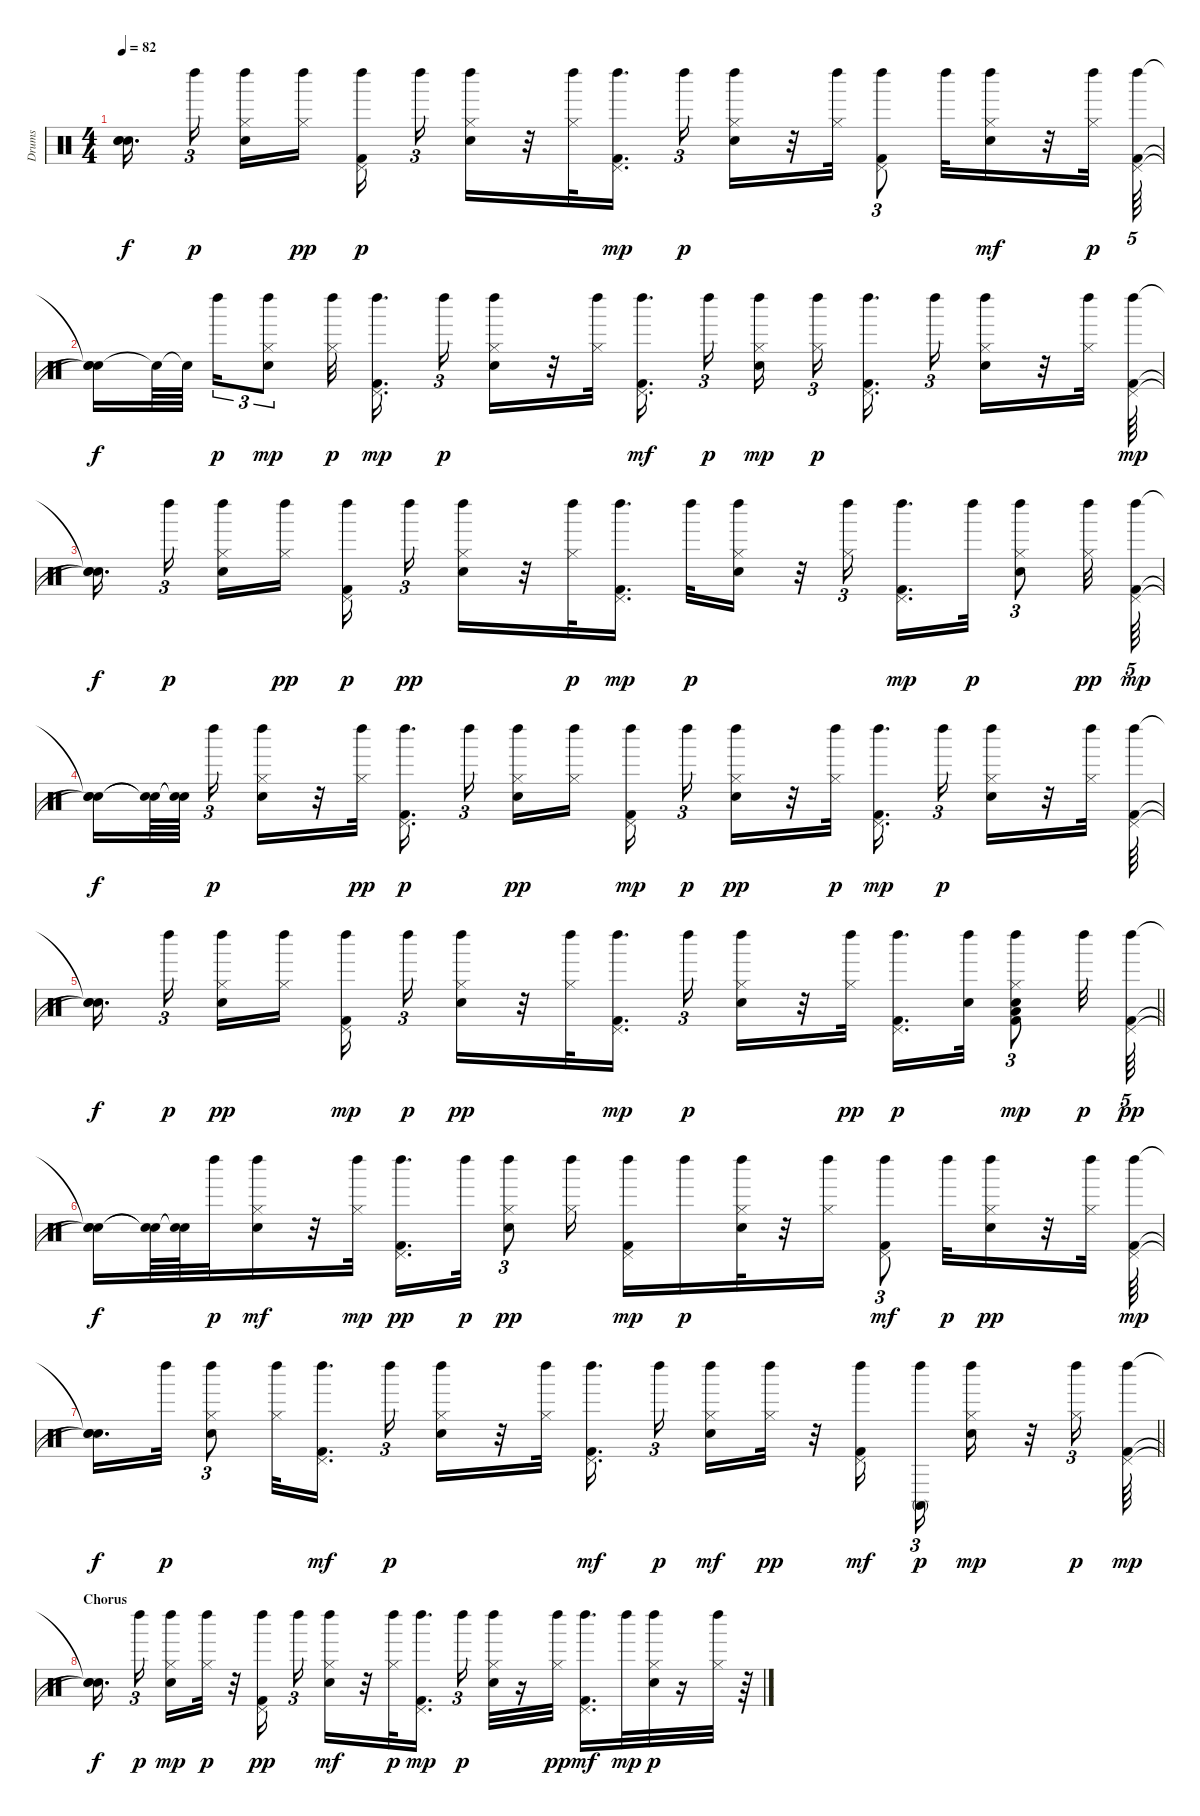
\track ("Drums" "Drums") {instrument percussion}
\staff {score}
\articulation defaults
\ts (4 4)
\tempo 82
\clef neutral
\ks c
("Snare (hit)"{t} "Snare (hit)"{t} "Snare (hit)"{t}).16{d dy f beam splitsecondary} "Left Maraca (hit)".16{tu (3 2) dy p beam splitsecondary} ("Hi-Hat (closed)" "Left Maraca (hit)" "Hand Clap (hit)").16 ("Left Maraca (hit)" "Hi-Hat (closed)").16{dy pp} ("Pedal Hi-Hat (hit)" "Left Maraca (hit)" "Kick (hit) 2").16{dy p beam splitsecondary} "Left Maraca (hit)".16{tu (3 2)} ("Hi-Hat (closed)" "Left Maraca (hit)" "Hand Clap (hit)").16 r.32 ("Hi-Hat (closed)" "Left Maraca (hit)").32 ("Pedal Hi-Hat (hit)" "Left Maraca (hit)" "Kick (hit) 2").16{d dy mp} "Left Maraca (hit)".16{tu (3 2) dy p} ("Hi-Hat (closed)" "Left Maraca (hit)" "Hand Clap (hit)").16 r.32 ("Hi-Hat (closed)" "Left Maraca (hit)").32 ("Pedal Hi-Hat (hit)" "Left Maraca (hit)" "Kick (hit) 2").8{tu (3 2)} "Left Maraca (hit)".32 ("Hi-Hat (closed)" "Left Maraca (hit)" "Hand Clap (hit)").16{dy mf} r.32 ("Left Maraca (hit)" "Hi-Hat (closed)").32{dy p} ("Pedal Hi-Hat (hit)" "Left Maraca (hit)" "Kick (hit) 2").64{tu (5 4)} |
("Snare (hit)"{t} "Snare (hit)"{t} "Snare (hit)"{t}).16{dy f} "Snare (hit)"{t}.64 "Snare (hit)"{t}.64{beam splitsecondary} "Left Maraca (hit)".16{tu (3 2) dy p} ("Hi-Hat (closed)" "Hand Clap (hit)" "Left Maraca (hit)").8{tu (3 2) dy mp} ("Hi-Hat (closed)" "Left Maraca (hit)").32{dy p} ("Pedal Hi-Hat (hit)" "Left Maraca (hit)" "Kick (hit) 2").16{d dy mp beam splitsecondary} "Left Maraca (hit)".16{tu (3 2) dy p} ("Hi-Hat (closed)" "Left Maraca (hit)" "Hand Clap (hit)").16 r.32 ("Left Maraca (hit)" "Hi-Hat (closed)").32 ("Pedal Hi-Hat (hit)" "Left Maraca (hit)" "Kick (hit) 2").16{d dy mf beam splitsecondary} "Left Maraca (hit)".16{tu (3 2) dy p beam splitsecondary} ("Hi-Hat (closed)" "Hand Clap (hit)" "Left Maraca (hit)").16{dy mp} ("Hi-Hat (closed)" "Left Maraca (hit)").16{tu (3 2) dy p} ("Pedal Hi-Hat (hit)" "Kick (hit) 2" "Left Maraca (hit)").16{d beam splitsecondary} "Left Maraca (hit)".16{tu (3 2)} ("Hi-Hat (closed)" "Hand Clap (hit)" "Left Maraca (hit)").16 r.32 ("Left Maraca (hit)" "Hi-Hat (closed)").32 ("Pedal Hi-Hat (hit)" "Left Maraca (hit)" "Kick (hit) 2").64{dy mp} |
("Snare (hit)"{t} "Snare (hit)"{t} "Snare (hit)"{t}).16{d dy f beam splitsecondary} "Left Maraca (hit)".16{tu (3 2) dy p beam splitsecondary} ("Hi-Hat (closed)" "Hand Clap (hit)" "Left Maraca (hit)").16 ("Left Maraca (hit)" "Hi-Hat (closed)").16{dy pp} ("Pedal Hi-Hat (hit)" "Left Maraca (hit)" "Kick (hit) 2").16{dy p beam splitsecondary} "Left Maraca (hit)".16{tu (3 2) dy pp} ("Hi-Hat (closed)" "Hand Clap (hit)" "Left Maraca (hit)").16 r.32 ("Left Maraca (hit)" "Hi-Hat (closed)").32{dy p} ("Pedal Hi-Hat (hit)" "Left Maraca (hit)" "Kick (hit) 2").16{d dy mp} "Left Maraca (hit)".32{dy p} ("Hi-Hat (closed)" "Hand Clap (hit)" "Left Maraca (hit)").16 r.32 ("Hi-Hat (closed)" "Left Maraca (hit)").16{tu (3 2)} ("Pedal Hi-Hat (hit)" "Left Maraca (hit)" "Kick (hit) 2").16{d dy mp} "Left Maraca (hit)".32{dy p} ("Hi-Hat (closed)" "Left Maraca (hit)" "Hand Clap (hit)").8{tu (3 2)} ("Hi-Hat (closed)" "Left Maraca (hit)").32{dy pp} ("Pedal Hi-Hat (hit)" "Left Maraca (hit)" "Kick (hit) 2").64{tu (5 4) dy mp} |
("Snare (hit)"{t} "Snare (hit)"{t} "Snare (hit)"{t}).16{dy f} ("Snare (hit)"{t} "Snare (hit)"{t}).64 ("Snare (hit)"{t} "Snare (hit)"{t}).64{beam splitsecondary} "Left Maraca (hit)".16{tu (3 2) dy p} ("Hi-Hat (closed)" "Hand Clap (hit)" "Left Maraca (hit)").16 r.32 ("Left Maraca (hit)" "Hi-Hat (closed)").32{dy pp} ("Left Maraca (hit)" "Kick (hit) 2" "Pedal Hi-Hat (hit)").16{d dy p beam splitsecondary} "Left Maraca (hit)".16{tu (3 2) beam splitsecondary} ("Hi-Hat (closed)" "Hand Clap (hit)" "Left Maraca (hit)").16{dy pp} ("Left Maraca (hit)" "Hi-Hat (closed)").16 ("Pedal Hi-Hat (hit)" "Left Maraca (hit)" "Kick (hit) 2").16{dy mp beam splitsecondary} "Left Maraca (hit)".16{tu (3 2) dy p} ("Hi-Hat (closed)" "Left Maraca (hit)" "Hand Clap (hit)").16{dy pp} r.32 ("Left Maraca (hit)" "Hi-Hat (closed)").32{dy p} ("Pedal Hi-Hat (hit)" "Left Maraca (hit)" "Kick (hit) 2").16{d dy mp beam splitsecondary} "Left Maraca (hit)".16{tu (3 2) dy p} ("Hi-Hat (closed)" "Left Maraca (hit)" "Hand Clap (hit)").16 r.32 ("Left Maraca (hit)" "Hi-Hat (closed)").32 ("Left Maraca (hit)" "Kick (hit) 2" "Pedal Hi-Hat (hit)").64 |
\barLineRight lightlight
("Snare (hit)"{t} "Snare (hit)"{t} "Snare (hit)"{t}).16{d dy f beam splitsecondary} "Left Maraca (hit)".16{tu (3 2) dy p beam splitsecondary} ("Hi-Hat (closed)" "Left Maraca (hit)" "Hand Clap (hit)").16{dy pp} ("Left Maraca (hit)" "Hi-Hat (closed)").16 ("Pedal Hi-Hat (hit)" "Left Maraca (hit)" "Kick (hit) 2").16{dy mp beam splitsecondary} "Left Maraca (hit)".16{tu (3 2) dy p} ("Hi-Hat (closed)" "Left Maraca (hit)" "Hand Clap (hit)").16{dy pp} r.32 ("Left Maraca (hit)" "Hi-Hat (closed)").32 ("Pedal Hi-Hat (hit)" "Left Maraca (hit)" "Kick (hit) 2").16{d dy mp} "Left Maraca (hit)".16{tu (3 2) dy p} ("Hi-Hat (closed)" "Left Maraca (hit)" "Hand Clap (hit)").16 r.32 ("Left Maraca (hit)" "Hi-Hat (closed)").32{dy pp} ("Left Maraca (hit)" "Kick (hit) 2" "Pedal Hi-Hat (hit)").16{d dy p} ("Left Maraca (hit)" "Hand Clap (hit)").32 ("Hi-Hat (closed)" "Left Maraca (hit)" "Low Tom (hit)" "Kick (hit) 2" "Hand Clap (hit)").8{tu (3 2) dy mp} "Left Maraca (hit)".32{dy p} ("Left Maraca (hit)" "Kick (hit) 2" "Pedal Hi-Hat (hit)").64{tu (5 4) dy pp} |
("Snare (hit)"{t} "Snare (hit)"{t} "Snare (hit)"{t}).16{dy f} ("Snare (hit)"{t} "Snare (hit)"{t}).64 ("Snare (hit)"{t} "Snare (hit)"{t}).64 "Left Maraca (hit)".32{dy p} ("Hi-Hat (closed)" "Left Maraca (hit)" "Hand Clap (hit)").16{dy mf} r.32 ("Hi-Hat (closed)" "Left Maraca (hit)").32{dy mp} ("Left Maraca (hit)" "Kick (hit) 2" "Pedal Hi-Hat (hit)").16{d dy pp} "Left Maraca (hit)".32{dy p} ("Hi-Hat (closed)" "Hand Clap (hit)" "Left Maraca (hit)").8{tu (3 2) dy pp} ("Hi-Hat (closed)" "Left Maraca (hit)").16 ("Pedal Hi-Hat (hit)" "Left Maraca (hit)" "Kick (hit) 2").16{dy mp} "Left Maraca (hit)".16{dy p} ("Hi-Hat (closed)" "Hand Clap (hit)" "Left Maraca (hit)").32 r.32 ("Hi-Hat (closed)" "Left Maraca (hit)").16 ("Pedal Hi-Hat (hit)" "Kick (hit) 2" "Left Maraca (hit)").8{tu (3 2) dy mf} "Left Maraca (hit)".32{dy p} ("Hi-Hat (closed)" "Hand Clap (hit)" "Left Maraca (hit)").16{dy pp} r.32 ("Hi-Hat (closed)" "Left Maraca (hit)").32 ("Pedal Hi-Hat (hit)" "Left Maraca (hit)" "Kick (hit) 2").64{dy mp} |
\barLineRight lightlight
("Snare (hit)"{t} "Snare (hit)"{t} "Snare (hit)"{t}).16{d dy f} "Left Maraca (hit)".32{dy p} ("Hi-Hat (closed)" "Left Maraca (hit)" "Hand Clap (hit)").8{tu (3 2)} ("Left Maraca (hit)" "Hi-Hat (closed)").32 ("Pedal Hi-Hat (hit)" "Left Maraca (hit)" "Kick (hit) 2").16{d dy mf} "Left Maraca (hit)".16{tu (3 2) dy p} ("Hi-Hat (closed)" "Left Maraca (hit)" "Hand Clap (hit)").16 r.32 ("Hi-Hat (closed)" "Left Maraca (hit)").32 ("Pedal Hi-Hat (hit)" "Left Maraca (hit)" "Kick (hit) 2").16{d dy mf beam splitsecondary} "Left Maraca (hit)".16{tu (3 2) dy p beam splitsecondary} ("Hi-Hat (closed)" "Left Maraca (hit)" "Hand Clap (hit)").16{dy mf} ("Left Maraca (hit)" "Hi-Hat (closed)").32{dy pp} r.32 ("Pedal Hi-Hat (hit)" "Left Maraca (hit)" "Kick (hit) 2").16{dy mf beam splitsecondary} ("Conga high (mute)" "Left Maraca (hit)").16{tu (3 2) dy p} ("Hi-Hat (closed)" "Hand Clap (hit)" "Left Maraca (hit)").16{dy mp} r.32 ("Hi-Hat (closed)" "Left Maraca (hit)").16{tu (3 2) dy p} ("Pedal Hi-Hat (hit)" "Left Maraca (hit)" "Kick (hit) 2").64{dy mp} |
\section ("" "Chorus")
("Snare (hit)"{t} "Snare (hit)"{t} "Snare (hit)"{t}).16{d dy f beam splitsecondary} "Left Maraca (hit)".16{tu (3 2) dy p beam splitsecondary} ("Hi-Hat (closed)" "Hand Clap (hit)" "Left Maraca (hit)").16{dy mp} ("Left Maraca (hit)" "Hi-Hat (closed)").32{dy p} r.32 ("Kick (hit) 2" "Left Maraca (hit)" "Pedal Hi-Hat (hit)").16{dy pp beam splitsecondary} "Left Maraca (hit)".16{tu (3 2)} ("Hi-Hat (closed)" "Left Maraca (hit)" "Hand Clap (hit)").16{dy mf} r.32 ("Left Maraca (hit)" "Hi-Hat (closed)").32{dy p} ("Pedal Hi-Hat (hit)" "Kick (hit) 2" "Left Maraca (hit)").16{d dy mp} "Left Maraca (hit)".16{tu (3 2) dy p} ("Hi-Hat (closed)" "Hand Clap (hit)" "Left Maraca (hit)").32 r.16 ("Left Maraca (hit)" "Hi-Hat (closed)").32{dy pp} ("Pedal Hi-Hat (hit)" "Left Maraca (hit)" "Kick (hit) 2").16{d dy mf} "Left Maraca (hit)".32{dy mp} ("Hi-Hat (closed)" "Hand Clap (hit)" "Left Maraca (hit)").32{dy p} r.16 ("Hi-Hat (closed)" "Left Maraca (hit)").32 r.64
